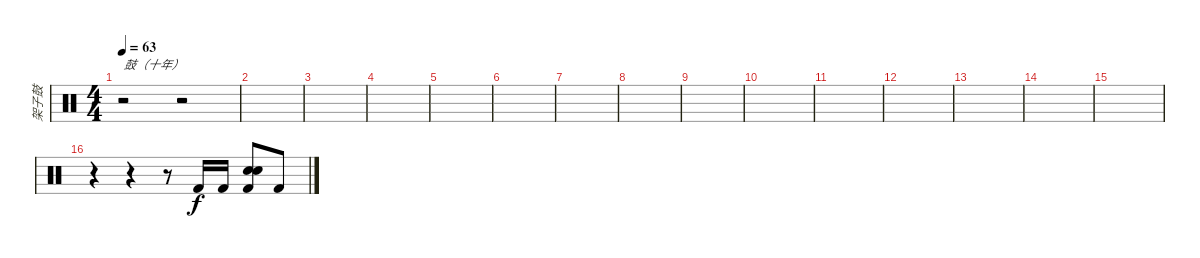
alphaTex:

\track ("架子鼓" "架子鼓") {instrument percussion}
\staff {score}
\articulation defaults
\ts (4 4)
\tempo 63
\clef neutral
\ks c
r.2{txt "鼓（十年）" dy f} r.2 |
|
|
|
|
|
|
|
|
|
|
|
|
|
|
r.4 r.4 r.8 "Kick (hit) 2".16 "Kick (hit) 2".16 ("Snare (hit) 2" "Snare (hit) 2" "Kick (hit) 2").8 "Kick (hit) 2".8
